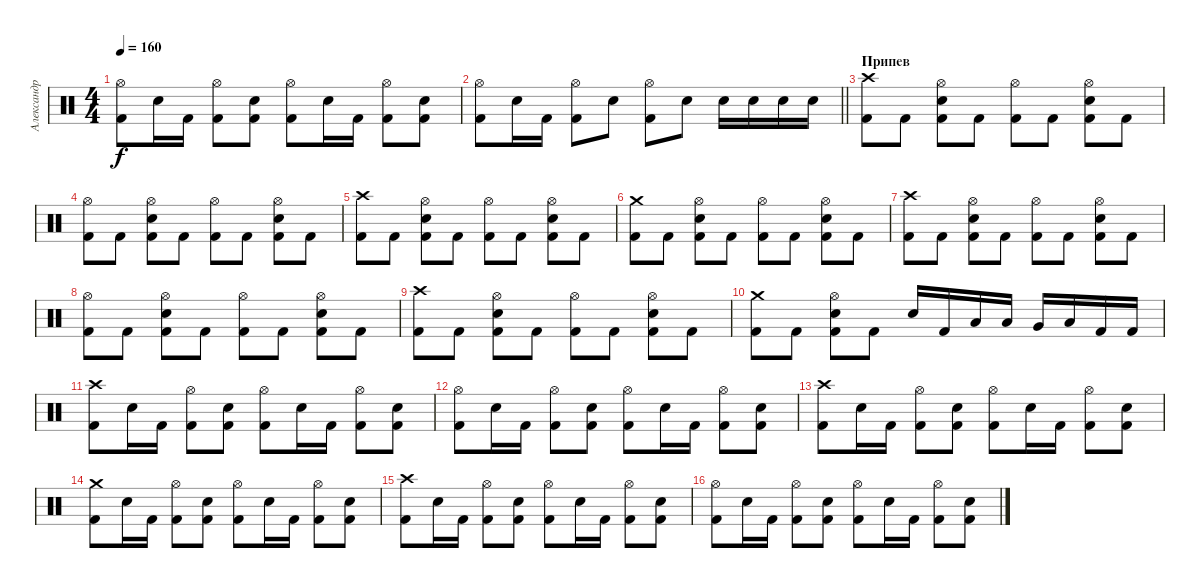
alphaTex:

\track ("Александр Карпухин" "Александр ") {instrument percussion}
\staff {score}
\articulation defaults
\ts (4 4)
\tempo 160
\clef neutral
\ks c
("Hi-Hat (open)" "Kick (hit) 2").8{dy f} "Electric Snare (hit)".16 "Kick (hit) 2".16 ("Hi-Hat (open)" "Kick (hit) 2").8 ("Electric Snare (hit)" "Kick (hit) 2").8 ("Hi-Hat (open)" "Kick (hit) 2").8 "Electric Snare (hit)".16 "Kick (hit) 2".16 ("Hi-Hat (open)" "Kick (hit) 2").8 ("Electric Snare (hit)" "Kick (hit) 2").8 |
\barLineRight lightlight
("Hi-Hat (open)" "Kick (hit) 2").8 "Electric Snare (hit)".16 "Kick (hit) 2".16 ("Hi-Hat (open)" "Kick (hit) 2").8 "Electric Snare (hit)".8 ("Hi-Hat (open)" "Kick (hit) 2").8 "Electric Snare (hit)".8 "Electric Snare (hit)".16 "Electric Snare (hit)".16 "Electric Snare (hit)".16 "Electric Snare (hit)".16 |
\section ("" "Припев")
("Crash high (hit)" "Kick (hit) 2").8 "Kick (hit) 2".8 ("Hi-Hat (open)" "Electric Snare (hit)" "Kick (hit) 2").8 "Kick (hit) 2".8 ("Hi-Hat (open)" "Kick (hit) 2").8 "Kick (hit) 2".8 ("Hi-Hat (open)" "Electric Snare (hit)" "Kick (hit) 2").8 "Kick (hit) 2".8 |
("Hi-Hat (open)" "Kick (hit) 2").8 "Kick (hit) 2".8 ("Hi-Hat (open)" "Electric Snare (hit)" "Kick (hit) 2").8 "Kick (hit) 2".8 ("Hi-Hat (open)" "Kick (hit) 2").8 "Kick (hit) 2".8 ("Hi-Hat (open)" "Electric Snare (hit)" "Kick (hit) 2").8 "Kick (hit) 2".8 |
("Crash high (hit)" "Kick (hit) 2").8 "Kick (hit) 2".8 ("Hi-Hat (open)" "Electric Snare (hit)" "Kick (hit) 2").8 "Kick (hit) 2".8 ("Hi-Hat (open)" "Kick (hit) 2").8 "Kick (hit) 2".8 ("Hi-Hat (open)" "Electric Snare (hit)" "Kick (hit) 2").8 "Kick (hit) 2".8 |
("Crash medium (hit)" "Kick (hit) 2").8 "Kick (hit) 2".8 ("Hi-Hat (open)" "Electric Snare (hit)" "Kick (hit) 2").8 "Kick (hit) 2".8 ("Hi-Hat (open)" "Kick (hit) 2").8 "Kick (hit) 2".8 ("Hi-Hat (open)" "Electric Snare (hit)" "Kick (hit) 2").8 "Kick (hit) 2".8 |
("Crash high (hit)" "Kick (hit) 2").8 "Kick (hit) 2".8 ("Hi-Hat (open)" "Electric Snare (hit)" "Kick (hit) 2").8 "Kick (hit) 2".8 ("Hi-Hat (open)" "Kick (hit) 2").8 "Kick (hit) 2".8 ("Hi-Hat (open)" "Electric Snare (hit)" "Kick (hit) 2").8 "Kick (hit) 2".8 |
("Hi-Hat (open)" "Kick (hit) 2").8 "Kick (hit) 2".8 ("Hi-Hat (open)" "Electric Snare (hit)" "Kick (hit) 2").8 "Kick (hit) 2".8 ("Hi-Hat (open)" "Kick (hit) 2").8 "Kick (hit) 2".8 ("Hi-Hat (open)" "Electric Snare (hit)" "Kick (hit) 2").8 "Kick (hit) 2".8 |
("Crash high (hit)" "Kick (hit) 2").8 "Kick (hit) 2".8 ("Hi-Hat (open)" "Electric Snare (hit)" "Kick (hit) 2").8 "Kick (hit) 2".8 ("Hi-Hat (open)" "Kick (hit) 2").8 "Kick (hit) 2".8 ("Hi-Hat (open)" "Electric Snare (hit)" "Kick (hit) 2").8 "Kick (hit) 2".8 |
("Crash medium (hit)" "Kick (hit) 2").8 "Kick (hit) 2".8 ("Hi-Hat (open)" "Electric Snare (hit)" "Kick (hit) 2").8 "Kick (hit) 2".8 "Electric Snare (hit)".16 "Kick (hit) 2".16 "Low Tom (hit)".16 "Low Tom (hit)".16 "Very Low Tom (hit)".16 "Low Floor Tom (hit)".16 "Kick (hit) 2".16 "Kick (hit) 2".16 |
("Crash high (hit)" "Kick (hit) 2").8 "Electric Snare (hit)".16 "Kick (hit) 2".16 ("Hi-Hat (open)" "Kick (hit) 2").8 ("Electric Snare (hit)" "Kick (hit) 2").8 ("Hi-Hat (open)" "Kick (hit) 2").8 "Electric Snare (hit)".16 "Kick (hit) 2".16 ("Hi-Hat (open)" "Kick (hit) 2").8 ("Electric Snare (hit)" "Kick (hit) 2").8 |
("Hi-Hat (open)" "Kick (hit) 2").8 "Electric Snare (hit)".16 "Kick (hit) 2".16 ("Hi-Hat (open)" "Kick (hit) 2").8 ("Electric Snare (hit)" "Kick (hit) 2").8 ("Hi-Hat (open)" "Kick (hit) 2").8 "Electric Snare (hit)".16 "Kick (hit) 2".16 ("Hi-Hat (open)" "Kick (hit) 2").8 ("Electric Snare (hit)" "Kick (hit) 2").8 |
("Crash high (hit)" "Kick (hit) 2").8 "Electric Snare (hit)".16 "Kick (hit) 2".16 ("Hi-Hat (open)" "Kick (hit) 2").8 ("Electric Snare (hit)" "Kick (hit) 2").8 ("Hi-Hat (open)" "Kick (hit) 2").8 "Electric Snare (hit)".16 "Kick (hit) 2".16 ("Hi-Hat (open)" "Kick (hit) 2").8 ("Electric Snare (hit)" "Kick (hit) 2").8 |
("Crash medium (hit)" "Kick (hit) 2").8 "Electric Snare (hit)".16 "Kick (hit) 2".16 ("Hi-Hat (open)" "Kick (hit) 2").8 ("Electric Snare (hit)" "Kick (hit) 2").8 ("Hi-Hat (open)" "Kick (hit) 2").8 "Electric Snare (hit)".16 "Kick (hit) 2".16 ("Hi-Hat (open)" "Kick (hit) 2").8 ("Electric Snare (hit)" "Kick (hit) 2").8 |
("Crash high (hit)" "Kick (hit) 2").8 "Electric Snare (hit)".16 "Kick (hit) 2".16 ("Hi-Hat (open)" "Kick (hit) 2").8 ("Electric Snare (hit)" "Kick (hit) 2").8 ("Hi-Hat (open)" "Kick (hit) 2").8 "Electric Snare (hit)".16 "Kick (hit) 2".16 ("Hi-Hat (open)" "Kick (hit) 2").8 ("Electric Snare (hit)" "Kick (hit) 2").8 |
("Hi-Hat (open)" "Kick (hit) 2").8 "Electric Snare (hit)".16 "Kick (hit) 2".16 ("Hi-Hat (open)" "Kick (hit) 2").8 ("Electric Snare (hit)" "Kick (hit) 2").8 ("Hi-Hat (open)" "Kick (hit) 2").8 "Electric Snare (hit)".16 "Kick (hit) 2".16 ("Hi-Hat (open)" "Kick (hit) 2").8 ("Electric Snare (hit)" "Kick (hit) 2").8
